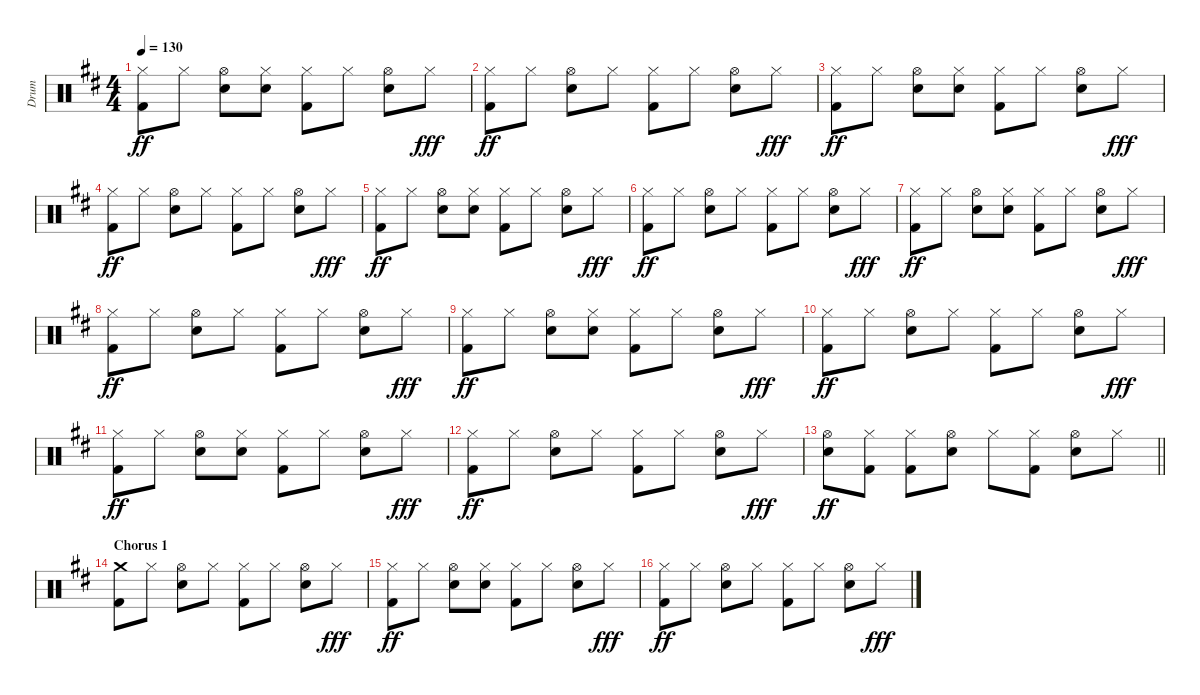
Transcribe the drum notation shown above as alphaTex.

\track ("Drum" "Drum") {instrument percussion}
\staff {score}
\articulation defaults
\ts (4 4)
\tempo 130
\clef neutral
\ks d
("Hi-Hat (closed)" "Kick (hit) 2").8{dy ff} "Hi-Hat (closed)".8 ("Hi-Hat (open)" "Electric Snare (hit)").8 ("Hi-Hat (closed)" "Electric Snare (hit)").8 ("Hi-Hat (closed)" "Kick (hit) 2").8 "Hi-Hat (closed)".8 ("Hi-Hat (open)" "Electric Snare (hit)").8 "Hi-Hat (closed)".8{dy fff} |
("Hi-Hat (closed)" "Kick (hit) 2").8{dy ff} "Hi-Hat (closed)".8 ("Hi-Hat (open)" "Electric Snare (hit)").8 "Hi-Hat (closed)".8 ("Hi-Hat (closed)" "Kick (hit) 2").8 "Hi-Hat (closed)".8 ("Hi-Hat (open)" "Electric Snare (hit)").8 "Hi-Hat (closed)".8{dy fff} |
("Hi-Hat (closed)" "Kick (hit) 2").8{dy ff} "Hi-Hat (closed)".8 ("Hi-Hat (open)" "Electric Snare (hit)").8 ("Hi-Hat (closed)" "Electric Snare (hit)").8 ("Hi-Hat (closed)" "Kick (hit) 2").8 "Hi-Hat (closed)".8 ("Hi-Hat (open)" "Electric Snare (hit)").8 "Hi-Hat (closed)".8{dy fff} |
("Hi-Hat (closed)" "Kick (hit) 2").8{dy ff} "Hi-Hat (closed)".8 ("Hi-Hat (open)" "Electric Snare (hit)").8 "Hi-Hat (closed)".8 ("Hi-Hat (closed)" "Kick (hit) 2").8 "Hi-Hat (closed)".8 ("Hi-Hat (open)" "Electric Snare (hit)").8 "Hi-Hat (closed)".8{dy fff} |
("Hi-Hat (closed)" "Kick (hit) 2").8{dy ff} "Hi-Hat (closed)".8 ("Hi-Hat (open)" "Electric Snare (hit)").8 ("Hi-Hat (closed)" "Electric Snare (hit)").8 ("Hi-Hat (closed)" "Kick (hit) 2").8 "Hi-Hat (closed)".8 ("Hi-Hat (open)" "Electric Snare (hit)").8 "Hi-Hat (closed)".8{dy fff} |
("Hi-Hat (closed)" "Kick (hit) 2").8{dy ff} "Hi-Hat (closed)".8 ("Hi-Hat (open)" "Electric Snare (hit)").8 "Hi-Hat (closed)".8 ("Hi-Hat (closed)" "Kick (hit) 2").8 "Hi-Hat (closed)".8 ("Hi-Hat (open)" "Electric Snare (hit)").8 "Hi-Hat (closed)".8{dy fff} |
("Hi-Hat (closed)" "Kick (hit) 2").8{dy ff} "Hi-Hat (closed)".8 ("Hi-Hat (open)" "Electric Snare (hit)").8 ("Hi-Hat (closed)" "Electric Snare (hit)").8 ("Hi-Hat (closed)" "Kick (hit) 2").8 "Hi-Hat (closed)".8 ("Hi-Hat (open)" "Electric Snare (hit)").8 "Hi-Hat (closed)".8{dy fff} |
("Hi-Hat (closed)" "Kick (hit) 2").8{dy ff} "Hi-Hat (closed)".8 ("Hi-Hat (open)" "Electric Snare (hit)").8 "Hi-Hat (closed)".8 ("Hi-Hat (closed)" "Kick (hit) 2").8 "Hi-Hat (closed)".8 ("Hi-Hat (open)" "Electric Snare (hit)").8 "Hi-Hat (closed)".8{dy fff} |
("Hi-Hat (closed)" "Kick (hit) 2").8{dy ff} "Hi-Hat (closed)".8 ("Hi-Hat (open)" "Electric Snare (hit)").8 ("Hi-Hat (closed)" "Electric Snare (hit)").8 ("Hi-Hat (closed)" "Kick (hit) 2").8 "Hi-Hat (closed)".8 ("Hi-Hat (open)" "Electric Snare (hit)").8 "Hi-Hat (closed)".8{dy fff} |
("Hi-Hat (closed)" "Kick (hit) 2").8{dy ff} "Hi-Hat (closed)".8 ("Hi-Hat (open)" "Electric Snare (hit)").8 "Hi-Hat (closed)".8 ("Hi-Hat (closed)" "Kick (hit) 2").8 "Hi-Hat (closed)".8 ("Hi-Hat (open)" "Electric Snare (hit)").8 "Hi-Hat (closed)".8{dy fff} |
("Hi-Hat (closed)" "Kick (hit) 2").8{dy ff} "Hi-Hat (closed)".8 ("Hi-Hat (open)" "Electric Snare (hit)").8 ("Hi-Hat (closed)" "Electric Snare (hit)").8 ("Hi-Hat (closed)" "Kick (hit) 2").8 "Hi-Hat (closed)".8 ("Hi-Hat (open)" "Electric Snare (hit)").8 "Hi-Hat (closed)".8{dy fff} |
("Hi-Hat (closed)" "Kick (hit) 2").8{dy ff} "Hi-Hat (closed)".8 ("Hi-Hat (open)" "Electric Snare (hit)").8 "Hi-Hat (closed)".8 ("Hi-Hat (closed)" "Kick (hit) 2").8 "Hi-Hat (closed)".8 ("Hi-Hat (open)" "Electric Snare (hit)").8 "Hi-Hat (closed)".8{dy fff} |
\barLineRight lightlight
("Hi-Hat (open)" "Electric Snare (hit)").8{dy ff} ("Hi-Hat (closed)" "Kick (hit) 2").8 ("Hi-Hat (closed)" "Kick (hit) 2").8 ("Hi-Hat (open)" "Electric Snare (hit)").8 "Hi-Hat (closed)".8 ("Hi-Hat (closed)" "Kick (hit) 2").8 ("Hi-Hat (open)" "Electric Snare (hit)").8 "Hi-Hat (closed)".8 |
\section ("" "Chorus 1")
("Crash medium (hit)" "Kick (hit) 2").8 "Hi-Hat (closed)".8 ("Hi-Hat (open)" "Electric Snare (hit)").8 "Hi-Hat (closed)".8 ("Hi-Hat (closed)" "Kick (hit) 2").8 "Hi-Hat (closed)".8 ("Hi-Hat (open)" "Electric Snare (hit)").8 "Hi-Hat (closed)".8{dy fff} |
("Hi-Hat (closed)" "Kick (hit) 2").8{dy ff} "Hi-Hat (closed)".8 ("Hi-Hat (open)" "Electric Snare (hit)").8 ("Hi-Hat (closed)" "Electric Snare (hit)").8 ("Hi-Hat (closed)" "Kick (hit) 2").8 "Hi-Hat (closed)".8 ("Hi-Hat (open)" "Electric Snare (hit)").8 "Hi-Hat (closed)".8{dy fff} |
("Hi-Hat (closed)" "Kick (hit) 2").8{dy ff} "Hi-Hat (closed)".8 ("Hi-Hat (open)" "Electric Snare (hit)").8 "Hi-Hat (closed)".8 ("Hi-Hat (closed)" "Kick (hit) 2").8 "Hi-Hat (closed)".8 ("Hi-Hat (open)" "Electric Snare (hit)").8 "Hi-Hat (closed)".8{dy fff}
